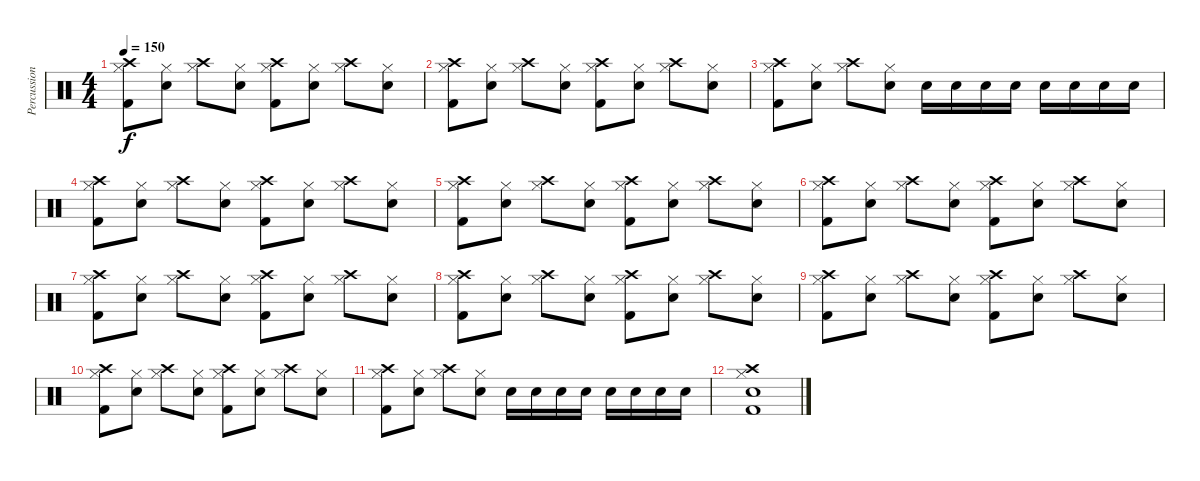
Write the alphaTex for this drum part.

\track ("Percussion" "Percussion") {instrument percussion}
\staff {score}
\articulation defaults
\ts (4 4)
\tempo 150
\clef neutral
\ks c
("Hi-Hat (closed)" "Kick (hit) 2" "Crash high (hit)").8{dy f} ("Hi-Hat (closed)" "Electric Snare (hit)").8 ("Hi-Hat (closed)" "Crash high (hit)").8 ("Hi-Hat (closed)" "Electric Snare (hit)").8 ("Hi-Hat (closed)" "Kick (hit) 2" "Crash high (hit)").8 ("Hi-Hat (closed)" "Electric Snare (hit)").8 ("Hi-Hat (closed)" "Crash high (hit)").8 ("Hi-Hat (closed)" "Electric Snare (hit)").8 |
("Hi-Hat (closed)" "Kick (hit) 2" "Crash high (hit)").8 ("Hi-Hat (closed)" "Electric Snare (hit)").8 ("Hi-Hat (closed)" "Crash high (hit)").8 ("Hi-Hat (closed)" "Electric Snare (hit)").8 ("Hi-Hat (closed)" "Kick (hit) 2" "Crash high (hit)").8 ("Hi-Hat (closed)" "Electric Snare (hit)").8 ("Hi-Hat (closed)" "Crash high (hit)").8 ("Hi-Hat (closed)" "Electric Snare (hit)").8 |
("Hi-Hat (closed)" "Kick (hit) 2" "Crash high (hit)").8 ("Hi-Hat (closed)" "Electric Snare (hit)").8 ("Hi-Hat (closed)" "Crash high (hit)").8 ("Hi-Hat (closed)" "Electric Snare (hit)").8 "Electric Snare (hit)".16 "Electric Snare (hit)".16 "Electric Snare (hit)".16 "Electric Snare (hit)".16 "Electric Snare (hit)".16 "Electric Snare (hit)".16 "Electric Snare (hit)".16 "Electric Snare (hit)".16 |
("Hi-Hat (closed)" "Kick (hit) 2" "Crash high (hit)").8 ("Hi-Hat (closed)" "Electric Snare (hit)").8 ("Hi-Hat (closed)" "Crash high (hit)").8 ("Hi-Hat (closed)" "Electric Snare (hit)").8 ("Hi-Hat (closed)" "Kick (hit) 2" "Crash high (hit)").8 ("Hi-Hat (closed)" "Electric Snare (hit)").8 ("Hi-Hat (closed)" "Crash high (hit)").8 ("Hi-Hat (closed)" "Electric Snare (hit)").8 |
("Hi-Hat (closed)" "Kick (hit) 2" "Crash high (hit)").8 ("Hi-Hat (closed)" "Electric Snare (hit)").8 ("Hi-Hat (closed)" "Crash high (hit)").8 ("Hi-Hat (closed)" "Electric Snare (hit)").8 ("Hi-Hat (closed)" "Kick (hit) 2" "Crash high (hit)").8 ("Hi-Hat (closed)" "Electric Snare (hit)").8 ("Hi-Hat (closed)" "Crash high (hit)").8 ("Hi-Hat (closed)" "Electric Snare (hit)").8 |
("Hi-Hat (closed)" "Kick (hit) 2" "Crash high (hit)").8 ("Hi-Hat (closed)" "Electric Snare (hit)").8 ("Hi-Hat (closed)" "Crash high (hit)").8 ("Hi-Hat (closed)" "Electric Snare (hit)").8 ("Hi-Hat (closed)" "Kick (hit) 2" "Crash high (hit)").8 ("Hi-Hat (closed)" "Electric Snare (hit)").8 ("Hi-Hat (closed)" "Crash high (hit)").8 ("Hi-Hat (closed)" "Electric Snare (hit)").8 |
("Hi-Hat (closed)" "Kick (hit) 2" "Crash high (hit)").8 ("Hi-Hat (closed)" "Electric Snare (hit)").8 ("Hi-Hat (closed)" "Crash high (hit)").8 ("Hi-Hat (closed)" "Electric Snare (hit)").8 ("Hi-Hat (closed)" "Kick (hit) 2" "Crash high (hit)").8 ("Hi-Hat (closed)" "Electric Snare (hit)").8 ("Hi-Hat (closed)" "Crash high (hit)").8 ("Hi-Hat (closed)" "Electric Snare (hit)").8 |
("Hi-Hat (closed)" "Kick (hit) 2" "Crash high (hit)").8 ("Hi-Hat (closed)" "Electric Snare (hit)").8 ("Hi-Hat (closed)" "Crash high (hit)").8 ("Hi-Hat (closed)" "Electric Snare (hit)").8 ("Hi-Hat (closed)" "Kick (hit) 2" "Crash high (hit)").8 ("Hi-Hat (closed)" "Electric Snare (hit)").8 ("Hi-Hat (closed)" "Crash high (hit)").8 ("Hi-Hat (closed)" "Electric Snare (hit)").8 |
("Hi-Hat (closed)" "Kick (hit) 2" "Crash high (hit)").8 ("Hi-Hat (closed)" "Electric Snare (hit)").8 ("Hi-Hat (closed)" "Crash high (hit)").8 ("Hi-Hat (closed)" "Electric Snare (hit)").8 ("Hi-Hat (closed)" "Kick (hit) 2" "Crash high (hit)").8 ("Hi-Hat (closed)" "Electric Snare (hit)").8 ("Hi-Hat (closed)" "Crash high (hit)").8 ("Hi-Hat (closed)" "Electric Snare (hit)").8 |
("Hi-Hat (closed)" "Kick (hit) 2" "Crash high (hit)").8 ("Hi-Hat (closed)" "Electric Snare (hit)").8 ("Hi-Hat (closed)" "Crash high (hit)").8 ("Hi-Hat (closed)" "Electric Snare (hit)").8 ("Hi-Hat (closed)" "Kick (hit) 2" "Crash high (hit)").8 ("Hi-Hat (closed)" "Electric Snare (hit)").8 ("Hi-Hat (closed)" "Crash high (hit)").8 ("Hi-Hat (closed)" "Electric Snare (hit)").8 |
("Hi-Hat (closed)" "Kick (hit) 2" "Crash high (hit)").8 ("Hi-Hat (closed)" "Electric Snare (hit)").8 ("Hi-Hat (closed)" "Crash high (hit)").8 ("Hi-Hat (closed)" "Electric Snare (hit)").8 "Electric Snare (hit)".16 "Electric Snare (hit)".16 "Electric Snare (hit)".16 "Electric Snare (hit)".16 "Electric Snare (hit)".16 "Electric Snare (hit)".16 "Electric Snare (hit)".16 "Electric Snare (hit)".16 |
("Hi-Hat (closed)" "Electric Snare (hit)" "Kick (hit) 2" "Crash high (hit)").1
